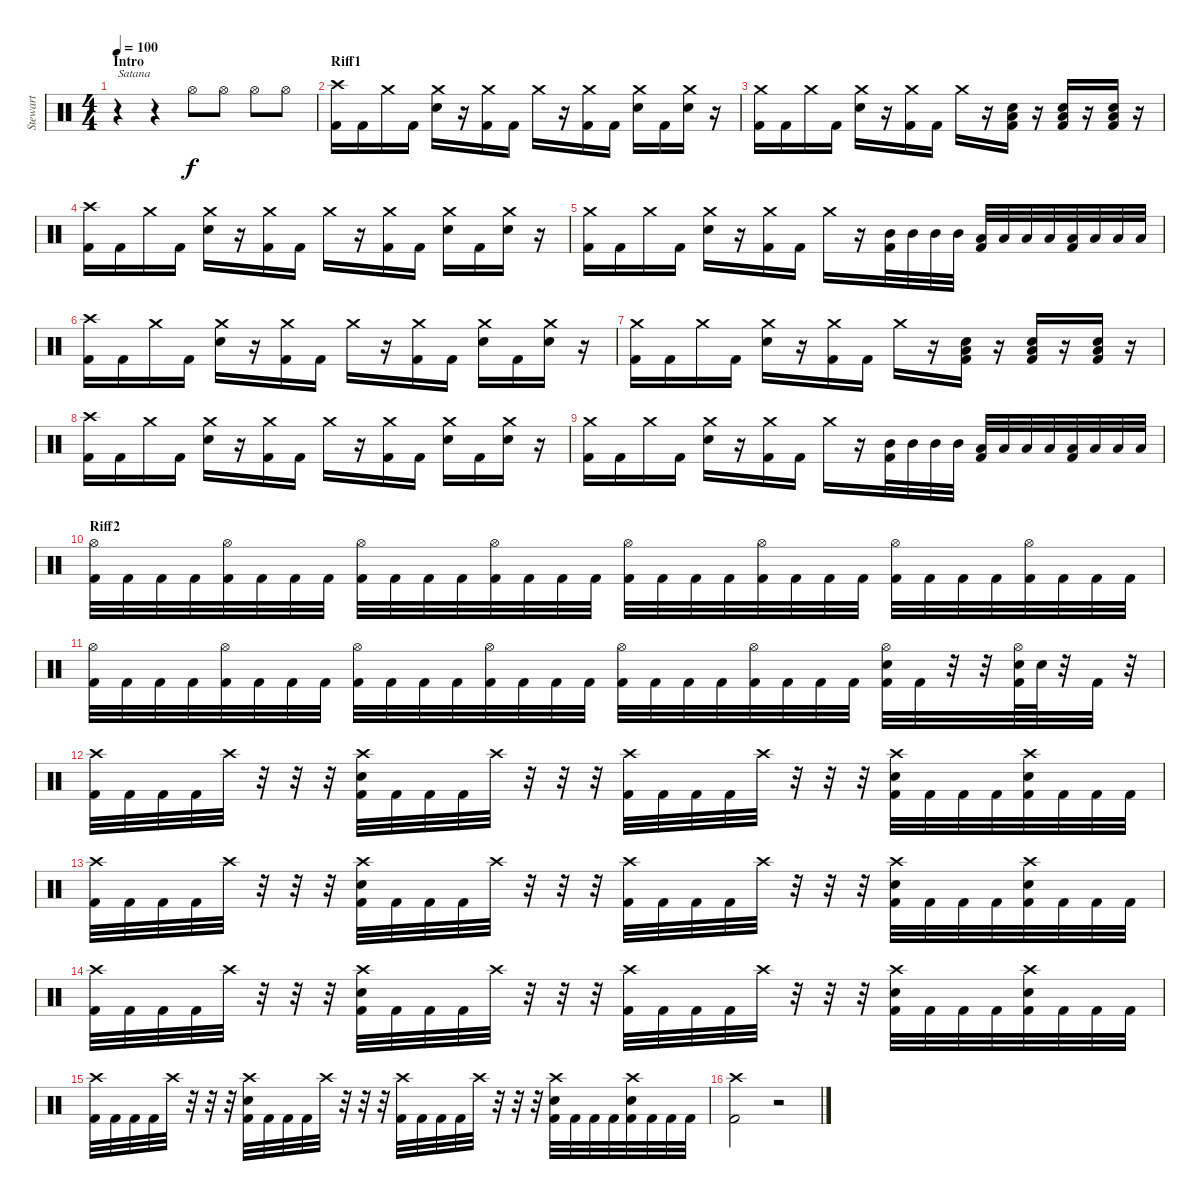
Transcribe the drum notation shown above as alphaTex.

\track ("Stewart" "Stewart") {instrument percussion}
\staff {score}
\articulation defaults
\ts (4 4)
\section ("" "Intro")
\tempo 100
\clef neutral
\ks c
r.4{txt "Satana" dy f} r.4 "Hi-Hat (open)".8 "Hi-Hat (open)".8 "Hi-Hat (open)".8 "Hi-Hat (open)".8 |
\section ("" "Riff1")
("Crash high (hit)" "Kick (hit) 2").16 "Kick (hit) 2".16 "Crash medium (hit)".16 "Kick (hit) 2".16 ("Crash medium (hit)" "Snare (hit) 2").16 r.16 ("Crash medium (hit)" "Kick (hit) 2").16 "Kick (hit) 2".16 "Crash medium (hit)".16 r.16 ("Crash medium (hit)" "Kick (hit) 2").16 "Kick (hit) 2".16 ("Crash medium (hit)" "Snare (hit) 2").16 "Kick (hit) 2".16 ("Crash medium (hit)" "Snare (hit) 2").16 r.16 |
("Crash medium (hit)" "Kick (hit) 2").16 "Kick (hit) 2".16 "Crash medium (hit)".16 "Kick (hit) 2".16 ("Crash medium (hit)" "Snare (hit) 2").16 r.16 ("Crash medium (hit)" "Kick (hit) 2").16 "Kick (hit) 2".16 "Crash medium (hit)".16 r.16 ("Snare (hit) 2" "Low Floor Tom (hit)" "Kick (hit) 2").16 r.16 ("Low Floor Tom (hit)" "Kick (hit) 2" "Snare (hit) 2").16 r.16 ("Low Floor Tom (hit)" "Kick (hit) 2" "Snare (hit) 2").16 r.16 |
("Crash high (hit)" "Kick (hit) 2").16 "Kick (hit) 2".16 "Crash medium (hit)".16 "Kick (hit) 2".16 ("Crash medium (hit)" "Snare (hit) 2").16 r.16 ("Crash medium (hit)" "Kick (hit) 2").16 "Kick (hit) 2".16 "Crash medium (hit)".16 r.16 ("Crash medium (hit)" "Kick (hit) 2").16 "Kick (hit) 2".16 ("Crash medium (hit)" "Snare (hit) 2").16 "Kick (hit) 2".16 ("Crash medium (hit)" "Snare (hit) 2").16 r.16 |
("Crash medium (hit)" "Kick (hit) 2").16 "Kick (hit) 2".16 "Crash medium (hit)".16 "Kick (hit) 2".16 ("Crash medium (hit)" "Snare (hit) 2").16 r.16 ("Crash medium (hit)" "Kick (hit) 2").16 "Kick (hit) 2".16 "Crash medium (hit)".16 r.16 ("Mid Tom (hit)" "Kick (hit) 2").32 "Mid Tom (hit)".32 "Mid Tom (hit)".32 "Mid Tom (hit)".32 ("Low Tom (hit)" "Kick (hit) 2").32 "Low Tom (hit)".32 "Low Tom (hit)".32 "Low Tom (hit)".32 ("Low Floor Tom (hit)" "Kick (hit) 2").32 "Low Floor Tom (hit)".32 "Low Floor Tom (hit)".32 "Low Floor Tom (hit)".32 |
("Crash high (hit)" "Kick (hit) 2").16 "Kick (hit) 2".16 "Crash medium (hit)".16 "Kick (hit) 2".16 ("Crash medium (hit)" "Snare (hit) 2").16 r.16 ("Crash medium (hit)" "Kick (hit) 2").16 "Kick (hit) 2".16 "Crash medium (hit)".16 r.16 ("Crash medium (hit)" "Kick (hit) 2").16 "Kick (hit) 2".16 ("Crash medium (hit)" "Snare (hit) 2").16 "Kick (hit) 2".16 ("Crash medium (hit)" "Snare (hit) 2").16 r.16 |
("Crash medium (hit)" "Kick (hit) 2").16 "Kick (hit) 2".16 "Crash medium (hit)".16 "Kick (hit) 2".16 ("Crash medium (hit)" "Snare (hit) 2").16 r.16 ("Crash medium (hit)" "Kick (hit) 2").16 "Kick (hit) 2".16 "Crash medium (hit)".16 r.16 ("Snare (hit) 2" "Low Floor Tom (hit)" "Kick (hit) 2").16 r.16 ("Low Floor Tom (hit)" "Kick (hit) 2" "Snare (hit) 2").16 r.16 ("Low Floor Tom (hit)" "Kick (hit) 2" "Snare (hit) 2").16 r.16 |
("Crash high (hit)" "Kick (hit) 2").16 "Kick (hit) 2".16 "Crash medium (hit)".16 "Kick (hit) 2".16 ("Crash medium (hit)" "Snare (hit) 2").16 r.16 ("Crash medium (hit)" "Kick (hit) 2").16 "Kick (hit) 2".16 "Crash medium (hit)".16 r.16 ("Crash medium (hit)" "Kick (hit) 2").16 "Kick (hit) 2".16 ("Crash medium (hit)" "Snare (hit) 2").16 "Kick (hit) 2".16 ("Crash medium (hit)" "Snare (hit) 2").16 r.16 |
("Crash medium (hit)" "Kick (hit) 2").16 "Kick (hit) 2".16 "Crash medium (hit)".16 "Kick (hit) 2".16 ("Crash medium (hit)" "Snare (hit) 2").16 r.16 ("Crash medium (hit)" "Kick (hit) 2").16 "Kick (hit) 2".16 "Crash medium (hit)".16 r.16 ("Mid Tom (hit)" "Kick (hit) 2").32 "Mid Tom (hit)".32 "Mid Tom (hit)".32 "Mid Tom (hit)".32 ("Low Tom (hit)" "Kick (hit) 2").32 "Low Tom (hit)".32 "Low Tom (hit)".32 "Low Tom (hit)".32 ("Low Floor Tom (hit)" "Kick (hit) 2").32 "Low Floor Tom (hit)".32 "Low Floor Tom (hit)".32 "Low Floor Tom (hit)".32 |
\section ("" "Riff2")
("Hi-Hat (open)" "Kick (hit) 2").32 "Kick (hit) 2".32 "Kick (hit) 2".32 "Kick (hit) 2".32 ("Hi-Hat (open)" "Kick (hit) 2").32 "Kick (hit) 2".32 "Kick (hit) 2".32 "Kick (hit) 2".32 ("Hi-Hat (open)" "Kick (hit) 2").32 "Kick (hit) 2".32 "Kick (hit) 2".32 "Kick (hit) 2".32 ("Hi-Hat (open)" "Kick (hit) 2").32 "Kick (hit) 2".32 "Kick (hit) 2".32 "Kick (hit) 2".32 ("Hi-Hat (open)" "Kick (hit) 2").32 "Kick (hit) 2".32 "Kick (hit) 2".32 "Kick (hit) 2".32 ("Hi-Hat (open)" "Kick (hit) 2").32 "Kick (hit) 2".32 "Kick (hit) 2".32 "Kick (hit) 2".32 ("Hi-Hat (open)" "Kick (hit) 2").32 "Kick (hit) 2".32 "Kick (hit) 2".32 "Kick (hit) 2".32 ("Hi-Hat (open)" "Kick (hit) 2").32 "Kick (hit) 2".32 "Kick (hit) 2".32 "Kick (hit) 2".32 |
("Hi-Hat (open)" "Kick (hit) 2").32 "Kick (hit) 2".32 "Kick (hit) 2".32 "Kick (hit) 2".32 ("Hi-Hat (open)" "Kick (hit) 2").32 "Kick (hit) 2".32 "Kick (hit) 2".32 "Kick (hit) 2".32 ("Hi-Hat (open)" "Kick (hit) 2").32 "Kick (hit) 2".32 "Kick (hit) 2".32 "Kick (hit) 2".32 ("Hi-Hat (open)" "Kick (hit) 2").32 "Kick (hit) 2".32 "Kick (hit) 2".32 "Kick (hit) 2".32 ("Hi-Hat (open)" "Kick (hit) 2").32 "Kick (hit) 2".32 "Kick (hit) 2".32 "Kick (hit) 2".32 ("Hi-Hat (open)" "Kick (hit) 2").32 "Kick (hit) 2".32 "Kick (hit) 2".32 "Kick (hit) 2".32 ("Hi-Hat (open)" "Snare (hit) 2" "Kick (hit) 2").32 "Kick (hit) 2".32 r.32 r.32 ("Hi-Hat (open)" "Snare (hit) 2" "Kick (hit) 2").64 "Snare (hit) 2".64 r.32 "Kick (hit) 2".32 r.32 |
("Crash high (hit)" "Kick (hit) 2").32 "Kick (hit) 2".32 "Kick (hit) 2".32 "Kick (hit) 2".32 "Crash high (hit)".32 r.32 r.32 r.32 ("Crash high (hit)" "Snare (hit) 2" "Kick (hit) 2").32 "Kick (hit) 2".32 "Kick (hit) 2".32 "Kick (hit) 2".32 "Crash high (hit)".32 r.32 r.32 r.32 ("Crash high (hit)" "Kick (hit) 2").32 "Kick (hit) 2".32 "Kick (hit) 2".32 "Kick (hit) 2".32 "Crash high (hit)".32 r.32 r.32 r.32 ("Crash high (hit)" "Snare (hit) 2" "Kick (hit) 2").32 "Kick (hit) 2".32 "Kick (hit) 2".32 "Kick (hit) 2".32 ("Crash high (hit)" "Snare (hit) 2" "Kick (hit) 2").32 "Kick (hit) 2".32 "Kick (hit) 2".32 "Kick (hit) 2".32 |
("Crash high (hit)" "Kick (hit) 2").32 "Kick (hit) 2".32 "Kick (hit) 2".32 "Kick (hit) 2".32 "Crash high (hit)".32 r.32 r.32 r.32 ("Crash high (hit)" "Snare (hit) 2" "Kick (hit) 2").32 "Kick (hit) 2".32 "Kick (hit) 2".32 "Kick (hit) 2".32 "Crash high (hit)".32 r.32 r.32 r.32 ("Crash high (hit)" "Kick (hit) 2").32 "Kick (hit) 2".32 "Kick (hit) 2".32 "Kick (hit) 2".32 "Crash high (hit)".32 r.32 r.32 r.32 ("Crash high (hit)" "Snare (hit) 2" "Kick (hit) 2").32 "Kick (hit) 2".32 "Kick (hit) 2".32 "Kick (hit) 2".32 ("Crash high (hit)" "Snare (hit) 2" "Kick (hit) 2").32 "Kick (hit) 2".32 "Kick (hit) 2".32 "Kick (hit) 2".32 |
("Crash high (hit)" "Kick (hit) 2").32 "Kick (hit) 2".32 "Kick (hit) 2".32 "Kick (hit) 2".32 "Crash high (hit)".32 r.32 r.32 r.32 ("Crash high (hit)" "Snare (hit) 2" "Kick (hit) 2").32 "Kick (hit) 2".32 "Kick (hit) 2".32 "Kick (hit) 2".32 "Crash high (hit)".32 r.32 r.32 r.32 ("Crash high (hit)" "Kick (hit) 2").32 "Kick (hit) 2".32 "Kick (hit) 2".32 "Kick (hit) 2".32 "Crash high (hit)".32 r.32 r.32 r.32 ("Crash high (hit)" "Snare (hit) 2" "Kick (hit) 2").32 "Kick (hit) 2".32 "Kick (hit) 2".32 "Kick (hit) 2".32 ("Crash high (hit)" "Snare (hit) 2" "Kick (hit) 2").32 "Kick (hit) 2".32 "Kick (hit) 2".32 "Kick (hit) 2".32 |
("Crash high (hit)" "Kick (hit) 2").32 "Kick (hit) 2".32 "Kick (hit) 2".32 "Kick (hit) 2".32 "Crash high (hit)".32 r.32 r.32 r.32 ("Crash high (hit)" "Snare (hit) 2" "Kick (hit) 2").32 "Kick (hit) 2".32 "Kick (hit) 2".32 "Kick (hit) 2".32 "Crash high (hit)".32 r.32 r.32 r.32 ("Crash high (hit)" "Kick (hit) 2").32 "Kick (hit) 2".32 "Kick (hit) 2".32 "Kick (hit) 2".32 "Crash high (hit)".32 r.32 r.32 r.32 ("Crash high (hit)" "Snare (hit) 2" "Kick (hit) 2").32 "Kick (hit) 2".32 "Kick (hit) 2".32 "Kick (hit) 2".32 ("Crash high (hit)" "Snare (hit) 2" "Kick (hit) 2").32 "Kick (hit) 2".32 "Kick (hit) 2".32 "Kick (hit) 2".32 |
("Crash high (hit)" "Kick (hit) 2").2 r.2{volume 0}
